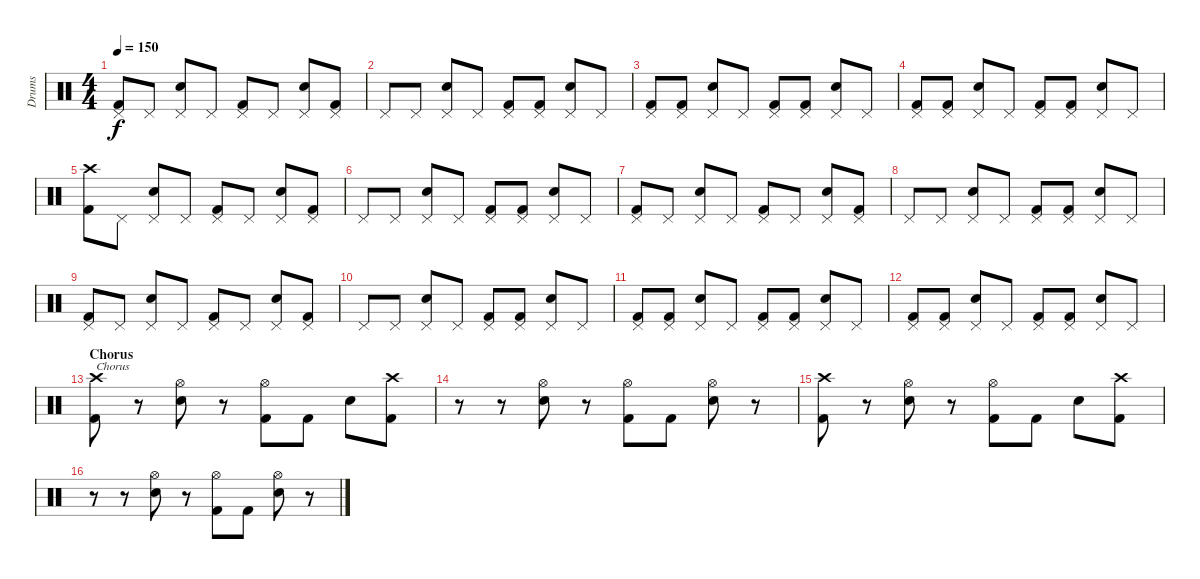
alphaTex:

\track ("Drums" "Drums") {instrument percussion}
\staff {score}
\articulation defaults
\ts (4 4)
\tempo 150
\clef neutral
\ks c
("Pedal Hi-Hat (hit)" "Kick (hit) 2").8{dy f} "Pedal Hi-Hat (hit)".8 ("Pedal Hi-Hat (hit)" "Electric Snare (hit)").8 "Pedal Hi-Hat (hit)".8 ("Pedal Hi-Hat (hit)" "Kick (hit) 2").8 "Pedal Hi-Hat (hit)".8 ("Pedal Hi-Hat (hit)" "Electric Snare (hit)").8 ("Pedal Hi-Hat (hit)" "Kick (hit) 2").8 |
"Pedal Hi-Hat (hit)".8 "Pedal Hi-Hat (hit)".8 ("Pedal Hi-Hat (hit)" "Electric Snare (hit)").8 "Pedal Hi-Hat (hit)".8 ("Pedal Hi-Hat (hit)" "Kick (hit) 2").8 ("Pedal Hi-Hat (hit)" "Kick (hit) 2").8 ("Pedal Hi-Hat (hit)" "Electric Snare (hit)").8 "Pedal Hi-Hat (hit)".8 |
("Pedal Hi-Hat (hit)" "Kick (hit) 2").8 ("Pedal Hi-Hat (hit)" "Kick (hit) 2").8 ("Pedal Hi-Hat (hit)" "Electric Snare (hit)").8 "Pedal Hi-Hat (hit)".8 ("Pedal Hi-Hat (hit)" "Kick (hit) 2").8 ("Pedal Hi-Hat (hit)" "Kick (hit) 2").8 ("Pedal Hi-Hat (hit)" "Electric Snare (hit)").8 "Pedal Hi-Hat (hit)".8 |
("Pedal Hi-Hat (hit)" "Kick (hit) 2").8 ("Pedal Hi-Hat (hit)" "Kick (hit) 2").8 ("Pedal Hi-Hat (hit)" "Electric Snare (hit)").8 "Pedal Hi-Hat (hit)".8 ("Pedal Hi-Hat (hit)" "Kick (hit) 2").8 ("Pedal Hi-Hat (hit)" "Kick (hit) 2").8 ("Pedal Hi-Hat (hit)" "Electric Snare (hit)").8 "Pedal Hi-Hat (hit)".8 |
("Crash high (hit)" "Kick (hit) 2").8 "Pedal Hi-Hat (hit)".8 ("Pedal Hi-Hat (hit)" "Electric Snare (hit)").8 "Pedal Hi-Hat (hit)".8 ("Pedal Hi-Hat (hit)" "Kick (hit) 2").8 "Pedal Hi-Hat (hit)".8 ("Pedal Hi-Hat (hit)" "Electric Snare (hit)").8 ("Pedal Hi-Hat (hit)" "Kick (hit) 2").8 |
"Pedal Hi-Hat (hit)".8 "Pedal Hi-Hat (hit)".8 ("Pedal Hi-Hat (hit)" "Electric Snare (hit)").8 "Pedal Hi-Hat (hit)".8 ("Pedal Hi-Hat (hit)" "Kick (hit) 2").8 ("Pedal Hi-Hat (hit)" "Kick (hit) 2").8 ("Pedal Hi-Hat (hit)" "Electric Snare (hit)").8 "Pedal Hi-Hat (hit)".8 |
("Pedal Hi-Hat (hit)" "Kick (hit) 2").8 "Pedal Hi-Hat (hit)".8 ("Pedal Hi-Hat (hit)" "Electric Snare (hit)").8 "Pedal Hi-Hat (hit)".8 ("Pedal Hi-Hat (hit)" "Kick (hit) 2").8 "Pedal Hi-Hat (hit)".8 ("Pedal Hi-Hat (hit)" "Electric Snare (hit)").8 ("Pedal Hi-Hat (hit)" "Kick (hit) 2").8 |
"Pedal Hi-Hat (hit)".8 "Pedal Hi-Hat (hit)".8 ("Pedal Hi-Hat (hit)" "Electric Snare (hit)").8 "Pedal Hi-Hat (hit)".8 ("Pedal Hi-Hat (hit)" "Kick (hit) 2").8 ("Pedal Hi-Hat (hit)" "Kick (hit) 2").8 ("Pedal Hi-Hat (hit)" "Electric Snare (hit)").8 "Pedal Hi-Hat (hit)".8 |
("Pedal Hi-Hat (hit)" "Kick (hit) 2").8 "Pedal Hi-Hat (hit)".8 ("Pedal Hi-Hat (hit)" "Electric Snare (hit)").8 "Pedal Hi-Hat (hit)".8 ("Pedal Hi-Hat (hit)" "Kick (hit) 2").8 "Pedal Hi-Hat (hit)".8 ("Pedal Hi-Hat (hit)" "Electric Snare (hit)").8 ("Pedal Hi-Hat (hit)" "Kick (hit) 2").8 |
"Pedal Hi-Hat (hit)".8 "Pedal Hi-Hat (hit)".8 ("Pedal Hi-Hat (hit)" "Electric Snare (hit)").8 "Pedal Hi-Hat (hit)".8 ("Pedal Hi-Hat (hit)" "Kick (hit) 2").8 ("Pedal Hi-Hat (hit)" "Kick (hit) 2").8 ("Pedal Hi-Hat (hit)" "Electric Snare (hit)").8 "Pedal Hi-Hat (hit)".8 |
("Pedal Hi-Hat (hit)" "Kick (hit) 2").8 ("Pedal Hi-Hat (hit)" "Kick (hit) 2").8 ("Pedal Hi-Hat (hit)" "Electric Snare (hit)").8 "Pedal Hi-Hat (hit)".8 ("Pedal Hi-Hat (hit)" "Kick (hit) 2").8 ("Pedal Hi-Hat (hit)" "Kick (hit) 2").8 ("Pedal Hi-Hat (hit)" "Electric Snare (hit)").8 "Pedal Hi-Hat (hit)".8 |
("Pedal Hi-Hat (hit)" "Kick (hit) 2").8 ("Pedal Hi-Hat (hit)" "Kick (hit) 2").8 ("Pedal Hi-Hat (hit)" "Electric Snare (hit)").8 "Pedal Hi-Hat (hit)".8 ("Pedal Hi-Hat (hit)" "Kick (hit) 2").8 ("Pedal Hi-Hat (hit)" "Kick (hit) 2").8 ("Pedal Hi-Hat (hit)" "Electric Snare (hit)").8 "Pedal Hi-Hat (hit)".8 |
\section ("" "Chorus")
("Crash high (hit)" "Kick (hit) 2").8{txt "Chorus"} r.8 ("Hi-Hat (open)" "Electric Snare (hit)").8 r.8 ("Hi-Hat (open)" "Kick (hit) 2").8 "Kick (hit) 2".8 "Electric Snare (hit)".8 ("Crash high (hit)" "Kick (hit) 2").8 |
r.8 r.8 ("Hi-Hat (open)" "Electric Snare (hit)").8 r.8 ("Hi-Hat (open)" "Kick (hit) 2").8 "Kick (hit) 2".8 ("Hi-Hat (open)" "Electric Snare (hit)").8 r.8 |
("Crash high (hit)" "Kick (hit) 2").8 r.8 ("Hi-Hat (open)" "Electric Snare (hit)").8 r.8 ("Hi-Hat (open)" "Kick (hit) 2").8 "Kick (hit) 2".8 "Electric Snare (hit)".8 ("Crash high (hit)" "Kick (hit) 2").8 |
r.8 r.8 ("Hi-Hat (open)" "Electric Snare (hit)").8 r.8 ("Hi-Hat (open)" "Kick (hit) 2").8 "Kick (hit) 2".8 ("Hi-Hat (open)" "Electric Snare (hit)").8 r.8
